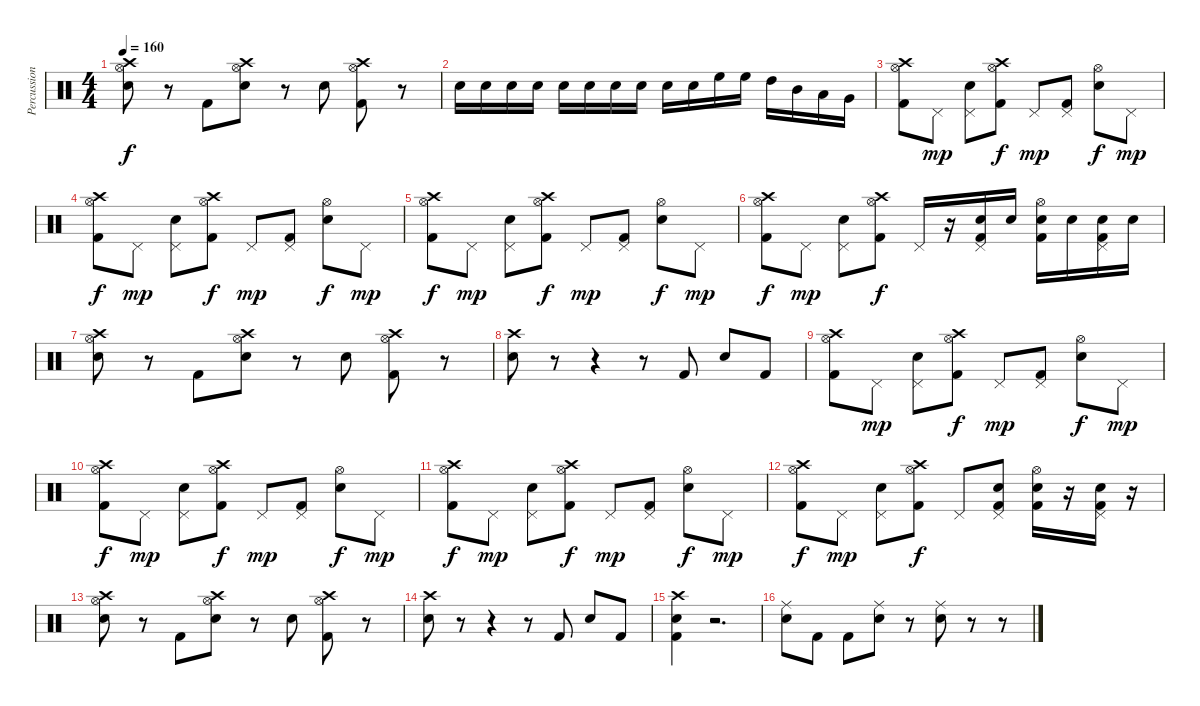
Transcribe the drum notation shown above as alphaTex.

\track ("Percussion" "Percussion") {instrument percussion}
\staff {score}
\articulation defaults
\ts (4 4)
\tempo 160
\clef neutral
\ks c
("Hi-Hat (open)" "Crash high (hit)" "Snare (hit) 2").8{dy f} r.8 "Kick (hit) 2".8 ("Hi-Hat (open)" "Crash high (hit)" "Snare (hit) 2").8 r.8 "Snare (hit) 2".8 ("Hi-Hat (open)" "Crash high (hit)" "Kick (hit) 2").8 r.8 |
"Snare (hit) 2".16 "Snare (hit) 2".16 "Snare (hit) 2".16 "Snare (hit) 2".16 "Snare (hit) 2".16 "Snare (hit) 2".16 "Snare (hit) 2".16 "Snare (hit) 2".16 "Snare (hit) 2".16 "Snare (hit) 2".16 "High Floor Tom (hit)".16 "High Floor Tom (hit)".16 "High Tom (hit)".16 "Mid Tom (hit)".16 "Low Tom (hit)".16 "Very Low Tom (hit)".16 |
("Hi-Hat (open)" "Crash high (hit)" "Kick (hit) 2").8 "Pedal Hi-Hat (hit)".8{dy mp} ("Pedal Hi-Hat (hit)" "Snare (hit) 2").8 ("Hi-Hat (open)" "Crash high (hit)" "Kick (hit) 2").8{dy f} "Pedal Hi-Hat (hit)".8{dy mp} ("Pedal Hi-Hat (hit)" "Kick (hit) 2").8 ("Hi-Hat (open)" "Snare (hit) 2").8{dy f} "Pedal Hi-Hat (hit)".8{dy mp} |
("Hi-Hat (open)" "Crash high (hit)" "Kick (hit) 2").8{dy f} "Pedal Hi-Hat (hit)".8{dy mp} ("Pedal Hi-Hat (hit)" "Snare (hit) 2").8 ("Hi-Hat (open)" "Crash high (hit)" "Kick (hit) 2").8{dy f} "Pedal Hi-Hat (hit)".8{dy mp} ("Pedal Hi-Hat (hit)" "Kick (hit) 2").8 ("Hi-Hat (open)" "Snare (hit) 2").8{dy f} "Pedal Hi-Hat (hit)".8{dy mp} |
("Hi-Hat (open)" "Crash high (hit)" "Kick (hit) 2").8{dy f} "Pedal Hi-Hat (hit)".8{dy mp} ("Pedal Hi-Hat (hit)" "Snare (hit) 2").8 ("Hi-Hat (open)" "Crash high (hit)" "Kick (hit) 2").8{dy f} "Pedal Hi-Hat (hit)".8{dy mp} ("Pedal Hi-Hat (hit)" "Kick (hit) 2").8 ("Hi-Hat (open)" "Snare (hit) 2").8{dy f} "Pedal Hi-Hat (hit)".8{dy mp} |
("Hi-Hat (open)" "Crash high (hit)" "Kick (hit) 2").8{dy f} "Pedal Hi-Hat (hit)".8{dy mp} ("Pedal Hi-Hat (hit)" "Snare (hit) 2").8 ("Hi-Hat (open)" "Crash high (hit)" "Kick (hit) 2").8{dy f} "Pedal Hi-Hat (hit)".16 r.16 ("Pedal Hi-Hat (hit)" "Snare (hit) 2" "Kick (hit) 2").16 "Snare (hit) 2".16 ("Hi-Hat (open)" "Snare (hit) 2" "Kick (hit) 2").16 "Snare (hit) 2".16 ("Pedal Hi-Hat (hit)" "Snare (hit) 2" "Kick (hit) 2").16 "Snare (hit) 2".16 |
("Hi-Hat (open)" "Crash high (hit)" "Snare (hit) 2").8 r.8 "Kick (hit) 2".8 ("Hi-Hat (open)" "Crash high (hit)" "Snare (hit) 2").8 r.8 "Snare (hit) 2".8 ("Hi-Hat (open)" "Crash high (hit)" "Kick (hit) 2").8 r.8 |
("Crash high (hit)" "Snare (hit) 2").8 r.8 r.4 r.8 "Kick (hit) 2".8 "Snare (hit) 2".8 "Kick (hit) 2".8 |
("Hi-Hat (open)" "Crash high (hit)" "Kick (hit) 2").8 "Pedal Hi-Hat (hit)".8{dy mp} ("Pedal Hi-Hat (hit)" "Snare (hit) 2").8 ("Hi-Hat (open)" "Crash high (hit)" "Kick (hit) 2").8{dy f} "Pedal Hi-Hat (hit)".8{dy mp} ("Pedal Hi-Hat (hit)" "Kick (hit) 2").8 ("Hi-Hat (open)" "Snare (hit) 2").8{dy f} "Pedal Hi-Hat (hit)".8{dy mp} |
("Hi-Hat (open)" "Crash high (hit)" "Kick (hit) 2").8{dy f} "Pedal Hi-Hat (hit)".8{dy mp} ("Pedal Hi-Hat (hit)" "Snare (hit) 2").8 ("Hi-Hat (open)" "Crash high (hit)" "Kick (hit) 2").8{dy f} "Pedal Hi-Hat (hit)".8{dy mp} ("Pedal Hi-Hat (hit)" "Kick (hit) 2").8 ("Hi-Hat (open)" "Snare (hit) 2").8{dy f} "Pedal Hi-Hat (hit)".8{dy mp} |
("Hi-Hat (open)" "Crash high (hit)" "Kick (hit) 2").8{dy f} "Pedal Hi-Hat (hit)".8{dy mp} ("Pedal Hi-Hat (hit)" "Snare (hit) 2").8 ("Hi-Hat (open)" "Crash high (hit)" "Kick (hit) 2").8{dy f} "Pedal Hi-Hat (hit)".8{dy mp} ("Pedal Hi-Hat (hit)" "Kick (hit) 2").8 ("Hi-Hat (open)" "Snare (hit) 2").8{dy f} "Pedal Hi-Hat (hit)".8{dy mp} |
("Hi-Hat (open)" "Crash high (hit)" "Kick (hit) 2").8{dy f} "Pedal Hi-Hat (hit)".8{dy mp} ("Pedal Hi-Hat (hit)" "Snare (hit) 2").8 ("Hi-Hat (open)" "Crash high (hit)" "Kick (hit) 2").8{dy f} "Pedal Hi-Hat (hit)".8 ("Pedal Hi-Hat (hit)" "Snare (hit) 2" "Kick (hit) 2").8 ("Hi-Hat (open)" "Snare (hit) 2" "Kick (hit) 2").16 r.16 ("Pedal Hi-Hat (hit)" "Snare (hit) 2" "Kick (hit) 2").16 r.16 |
("Hi-Hat (open)" "Crash high (hit)" "Snare (hit) 2").8 r.8 "Kick (hit) 2".8 ("Hi-Hat (open)" "Crash high (hit)" "Snare (hit) 2").8 r.8 "Snare (hit) 2".8 ("Hi-Hat (open)" "Crash high (hit)" "Kick (hit) 2").8 r.8 |
("Crash high (hit)" "Snare (hit) 2").8 r.8 r.4 r.8 "Kick (hit) 2".8 "Snare (hit) 2".8 "Kick (hit) 2".8 |
("Crash high (hit)" "Snare (hit) 2" "Kick (hit) 2").4 r.2{d} |
("Ride (middle)" "Snare (hit) 2").8 "Kick (hit) 2".8 "Kick (hit) 2".8 ("Ride (middle)" "Snare (hit) 2").8 r.8 ("Ride (middle)" "Snare (hit) 2").8 r.8 r.8
